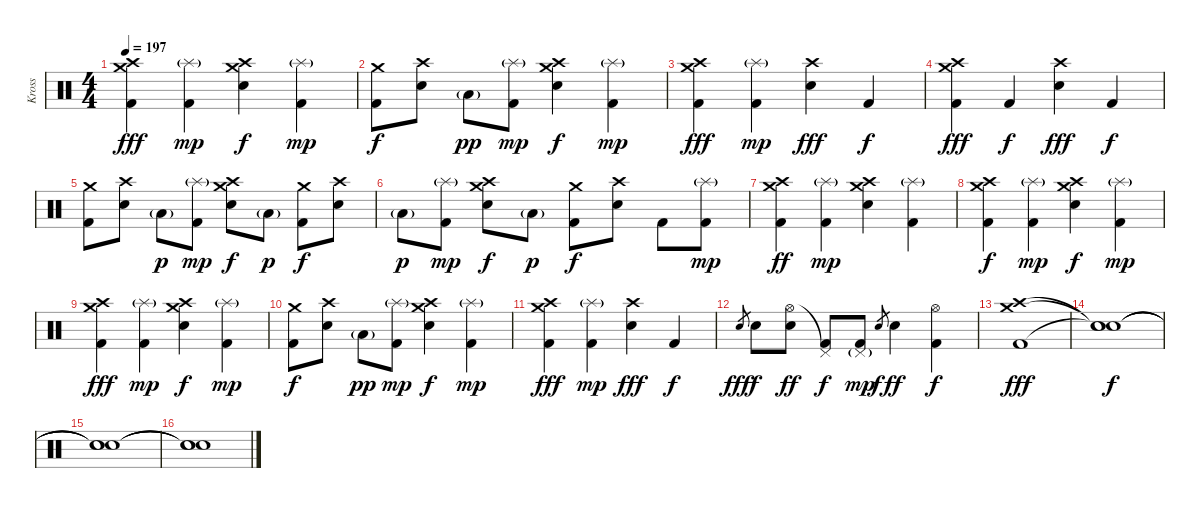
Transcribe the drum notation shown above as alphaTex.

\track ("Kross" "Kross") {instrument percussion}
\staff {score}
\articulation defaults
\ts (4 4)
\tempo 197
\clef neutral
\ks c
("Crash medium (hit)" "Crash high (hit)" "Kick (hit) 2").4{dy fff} ("Splash (hit)"{g} "Kick (hit) 2").4{dy mp} ("Crash medium (hit)" "Crash high (hit)" "Electric Snare (hit)").4{dy f} ("Splash (hit)"{g} "Kick (hit) 2").4{dy mp} |
("Crash medium (hit)" "Kick (hit) 2").8{dy f} ("Crash high (hit)" "Electric Snare (hit)").8 "Low Floor Tom (hit)"{g}.8{dy pp} ("Splash (hit)"{g} "Kick (hit) 2").8{dy mp} ("Crash medium (hit)" "Crash high (hit)" "Electric Snare (hit)").4{dy f} ("Splash (hit)"{g} "Kick (hit) 2").4{dy mp} |
("Crash medium (hit)" "Crash high (hit)" "Kick (hit) 2").4{dy fff} ("Splash (hit)"{g} "Kick (hit) 2").4{dy mp} ("Crash high (hit)" "Electric Snare (hit)").4{dy fff} "Kick (hit) 2".4{dy f} |
("Crash high (hit)" "Crash medium (hit)" "Kick (hit) 2").4{dy fff} "Kick (hit) 2".4{dy f} ("Crash high (hit)" "Electric Snare (hit)").4{dy fff} "Kick (hit) 2".4{dy f} |
("Crash medium (hit)" "Kick (hit) 2").8 ("Crash high (hit)" "Electric Snare (hit)").8 "Low Floor Tom (hit)"{g}.8{dy p} ("Splash (hit)"{g} "Kick (hit) 2").8{dy mp} ("Crash medium (hit)" "Crash high (hit)" "Electric Snare (hit)").8{dy f} "Low Floor Tom (hit)"{g}.8{dy p} ("Crash medium (hit)" "Kick (hit) 2").8{dy f} ("Crash high (hit)" "Electric Snare (hit)").8 |
"Low Floor Tom (hit)"{g}.8{dy p} ("Splash (hit)"{g} "Kick (hit) 2").8{dy mp} ("Crash medium (hit)" "Crash high (hit)" "Electric Snare (hit)").8{dy f} "Low Floor Tom (hit)"{g}.8{dy p} ("Crash medium (hit)" "Kick (hit) 2").8{dy f} ("Crash high (hit)" "Electric Snare (hit)").8 "Kick (hit) 2".8 ("Splash (hit)"{g} "Kick (hit) 2").8{dy mp} |
("Crash medium (hit)" "Crash high (hit)" "Kick (hit) 2").4{dy ff} ("Splash (hit)"{g} "Kick (hit) 2").4{dy mp} ("Crash medium (hit)" "Crash high (hit)" "Electric Snare (hit)").4 ("Splash (hit)"{g} "Kick (hit) 2").4 |
("Crash medium (hit)" "Crash high (hit)" "Kick (hit) 2").4{dy f} ("Splash (hit)"{g} "Kick (hit) 2").4{dy mp} ("Crash medium (hit)" "Crash high (hit)" "Electric Snare (hit)").4{dy f} ("Splash (hit)"{g} "Kick (hit) 2").4{dy mp} |
("Crash medium (hit)" "Crash high (hit)" "Kick (hit) 2").4{dy fff} ("Splash (hit)"{g} "Kick (hit) 2").4{dy mp} ("Crash medium (hit)" "Crash high (hit)" "Electric Snare (hit)").4{dy f} ("Splash (hit)"{g} "Kick (hit) 2").4{dy mp} |
("Crash medium (hit)" "Kick (hit) 2").8{dy f} ("Crash high (hit)" "Electric Snare (hit)").8 "Low Floor Tom (hit)"{g}.8{dy pp} ("Splash (hit)"{g} "Kick (hit) 2").8{dy mp} ("Crash medium (hit)" "Crash high (hit)" "Electric Snare (hit)").4{dy f} ("Splash (hit)"{g} "Kick (hit) 2").4{dy mp} |
("Crash medium (hit)" "Crash high (hit)" "Kick (hit) 2").4{dy fff} ("Splash (hit)"{g} "Kick (hit) 2").4{dy mp} ("Crash high (hit)" "Electric Snare (hit)").4{dy fff} "Kick (hit) 2".4{dy f} |
"Electric Snare (hit)".8{gr dy fff} "Electric Snare (hit)".8{dy f} ("Hi-Hat (open)" "Electric Snare (hit)").8{dy ff} ("Pedal Hi-Hat (hit)"{t} "Kick (hit) 2").8{dy f} ("Pedal Hi-Hat (hit)"{g} "Kick (hit) 2").8{dy mp} "Electric Snare (hit)".8{gr dy f} "Electric Snare (hit)".4{dy ff} ("Hi-Hat (open)" "Kick (hit) 2").4{dy f} |
("Crash high (hit)" "Crash medium (hit)" "Kick (hit) 2").1{dy fff} |
("Snare (hit)"{t} "Snare (hit)"{t} "Snare (hit)"{t}).1{dy f} |
("Snare (hit)"{t} "Snare (hit)"{t} "Snare (hit)"{t}).1 |
("Snare (hit)"{t} "Snare (hit)"{t} "Snare (hit)"{t}).1
